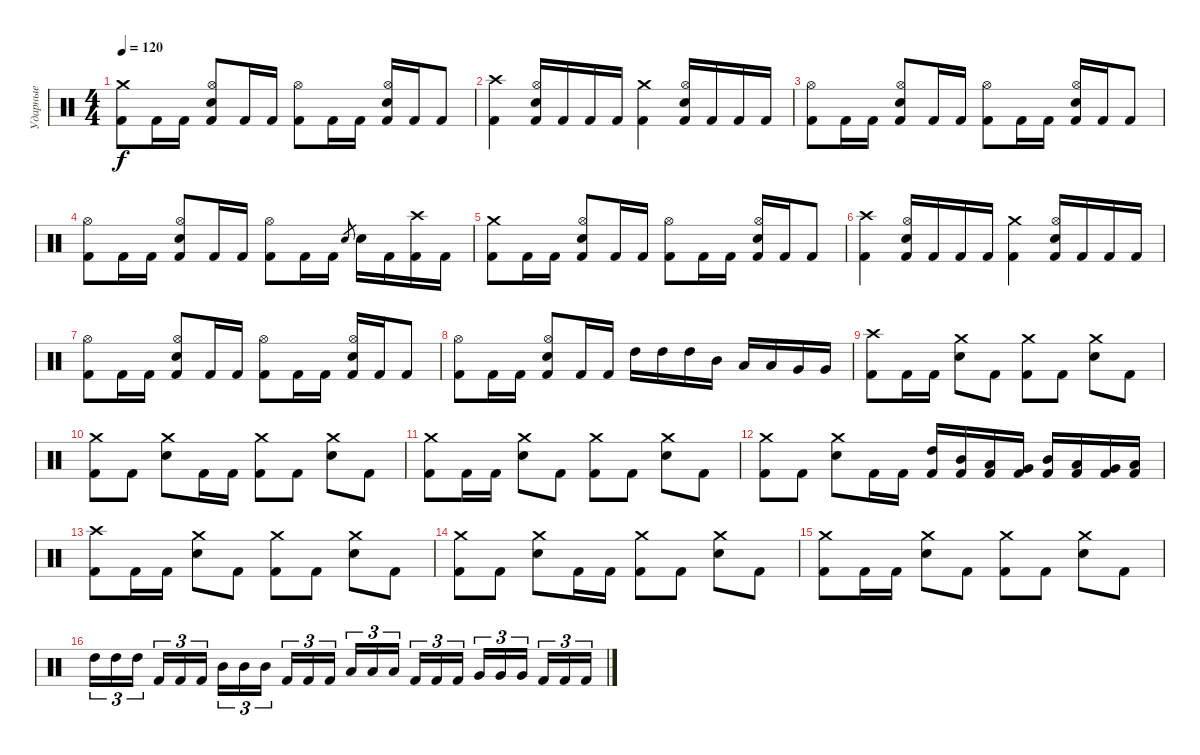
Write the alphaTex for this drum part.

\track ("Ударные" "Ударные") {instrument percussion}
\staff {score}
\articulation defaults
\ts (4 4)
\tempo 120
\clef neutral
\ks c
("Crash medium (hit)" "Kick (hit) 2").8{dy f} "Kick (hit) 2".16 "Kick (hit) 2".16 ("Hi-Hat (open)" "Electric Snare (hit)" "Kick (hit) 2").8 "Kick (hit) 2".16 "Kick (hit) 2".16 ("Hi-Hat (open)" "Kick (hit) 2").8 "Kick (hit) 2".16 "Kick (hit) 2".16 ("Hi-Hat (open)" "Electric Snare (hit)" "Kick (hit) 2").16 "Kick (hit) 2".16 "Kick (hit) 2".8 |
("Crash high (hit)" "Kick (hit) 2").4 ("Hi-Hat (open)" "Electric Snare (hit)" "Kick (hit) 2").16 "Kick (hit) 2".16 "Kick (hit) 2".16 "Kick (hit) 2".16 ("Crash medium (hit)" "Kick (hit) 2").4 ("Hi-Hat (open)" "Electric Snare (hit)" "Kick (hit) 2").16 "Kick (hit) 2".16 "Kick (hit) 2".16 "Kick (hit) 2".16 |
("Hi-Hat (open)" "Kick (hit) 2").8 "Kick (hit) 2".16 "Kick (hit) 2".16 ("Hi-Hat (open)" "Electric Snare (hit)" "Kick (hit) 2").8 "Kick (hit) 2".16 "Kick (hit) 2".16 ("Hi-Hat (open)" "Kick (hit) 2").8 "Kick (hit) 2".16 "Kick (hit) 2".16 ("Hi-Hat (open)" "Electric Snare (hit)" "Kick (hit) 2").16 "Kick (hit) 2".16 "Kick (hit) 2".8 |
("Hi-Hat (open)" "Kick (hit) 2").8 "Kick (hit) 2".16 "Kick (hit) 2".16 ("Hi-Hat (open)" "Electric Snare (hit)" "Kick (hit) 2").8 "Kick (hit) 2".16 "Kick (hit) 2".16 ("Hi-Hat (open)" "Kick (hit) 2").8 "Kick (hit) 2".16 "Kick (hit) 2".16 "Electric Snare (hit)".8{gr} "Electric Snare (hit)".16 "Kick (hit) 2".16 ("Crash high (hit)" "Kick (hit) 2").16 "Kick (hit) 2".16 |
("Crash medium (hit)" "Kick (hit) 2").8 "Kick (hit) 2".16 "Kick (hit) 2".16 ("Hi-Hat (open)" "Electric Snare (hit)" "Kick (hit) 2").8 "Kick (hit) 2".16 "Kick (hit) 2".16 ("Hi-Hat (open)" "Kick (hit) 2").8 "Kick (hit) 2".16 "Kick (hit) 2".16 ("Hi-Hat (open)" "Electric Snare (hit)" "Kick (hit) 2").16 "Kick (hit) 2".16 "Kick (hit) 2".8 |
("Crash high (hit)" "Kick (hit) 2").4 ("Hi-Hat (open)" "Electric Snare (hit)" "Kick (hit) 2").16 "Kick (hit) 2".16 "Kick (hit) 2".16 "Kick (hit) 2".16 ("Crash medium (hit)" "Kick (hit) 2").4 ("Hi-Hat (open)" "Electric Snare (hit)" "Kick (hit) 2").16 "Kick (hit) 2".16 "Kick (hit) 2".16 "Kick (hit) 2".16 |
("Hi-Hat (open)" "Kick (hit) 2").8 "Kick (hit) 2".16 "Kick (hit) 2".16 ("Hi-Hat (open)" "Electric Snare (hit)" "Kick (hit) 2").8 "Kick (hit) 2".16 "Kick (hit) 2".16 ("Hi-Hat (open)" "Kick (hit) 2").8 "Kick (hit) 2".16 "Kick (hit) 2".16 ("Hi-Hat (open)" "Electric Snare (hit)" "Kick (hit) 2").16 "Kick (hit) 2".16 "Kick (hit) 2".8 |
("Hi-Hat (open)" "Kick (hit) 2").8 "Kick (hit) 2".16 "Kick (hit) 2".16 ("Hi-Hat (open)" "Electric Snare (hit)" "Kick (hit) 2").8 "Kick (hit) 2".16 "Kick (hit) 2".16 "High Tom (hit)".16 "High Tom (hit)".16 "High Tom (hit)".16 "Mid Tom (hit)".16 "Low Tom (hit)".16 "Low Tom (hit)".16 "Very Low Tom (hit)".16 "Very Low Tom (hit)".16 |
("Crash high (hit)" "Kick (hit) 2").8 "Kick (hit) 2".16 "Kick (hit) 2".16 ("Crash medium (hit)" "Electric Snare (hit)").8 "Kick (hit) 2".8 ("Crash medium (hit)" "Kick (hit) 2").8 "Kick (hit) 2".8 ("Crash medium (hit)" "Electric Snare (hit)").8 "Kick (hit) 2".8 |
("Crash medium (hit)" "Kick (hit) 2").8 "Kick (hit) 2".8 ("Crash medium (hit)" "Electric Snare (hit)").8 "Kick (hit) 2".16 "Kick (hit) 2".16 ("Crash medium (hit)" "Kick (hit) 2").8 "Kick (hit) 2".8 ("Crash medium (hit)" "Electric Snare (hit)").8 "Kick (hit) 2".8 |
("Crash medium (hit)" "Kick (hit) 2").8 "Kick (hit) 2".16 "Kick (hit) 2".16 ("Crash medium (hit)" "Electric Snare (hit)").8 "Kick (hit) 2".8 ("Crash medium (hit)" "Kick (hit) 2").8 "Kick (hit) 2".8 ("Crash medium (hit)" "Electric Snare (hit)").8 "Kick (hit) 2".8 |
("Crash medium (hit)" "Kick (hit) 2").8 "Kick (hit) 2".8 ("Crash medium (hit)" "Electric Snare (hit)").8 "Kick (hit) 2".16 "Kick (hit) 2".16 ("High Tom (hit)" "Kick (hit) 2").16 ("Mid Tom (hit)" "Kick (hit) 2").16 ("Low Tom (hit)" "Kick (hit) 2").16 ("Very Low Tom (hit)" "Kick (hit) 2").16 ("Mid Tom (hit)" "Kick (hit) 2").16 ("Low Tom (hit)" "Kick (hit) 2").16 ("Very Low Tom (hit)" "Kick (hit) 2").16 ("Low Floor Tom (hit)" "Kick (hit) 2").16 |
("Crash high (hit)" "Kick (hit) 2").8 "Kick (hit) 2".16 "Kick (hit) 2".16 ("Crash medium (hit)" "Electric Snare (hit)").8 "Kick (hit) 2".8 ("Crash medium (hit)" "Kick (hit) 2").8 "Kick (hit) 2".8 ("Crash medium (hit)" "Electric Snare (hit)").8 "Kick (hit) 2".8 |
("Crash medium (hit)" "Kick (hit) 2").8 "Kick (hit) 2".8 ("Crash medium (hit)" "Electric Snare (hit)").8 "Kick (hit) 2".16 "Kick (hit) 2".16 ("Crash medium (hit)" "Kick (hit) 2").8 "Kick (hit) 2".8 ("Crash medium (hit)" "Electric Snare (hit)").8 "Kick (hit) 2".8 |
("Crash medium (hit)" "Kick (hit) 2").8 "Kick (hit) 2".16 "Kick (hit) 2".16 ("Crash medium (hit)" "Electric Snare (hit)").8 "Kick (hit) 2".8 ("Crash medium (hit)" "Kick (hit) 2").8 "Kick (hit) 2".8 ("Crash medium (hit)" "Electric Snare (hit)").8 "Kick (hit) 2".8 |
"High Tom (hit)".16{tu (3 2)} "High Tom (hit)".16{tu (3 2)} "High Tom (hit)".16{tu (3 2) beam splitsecondary} "Kick (hit) 2".16{tu (3 2)} "Kick (hit) 2".16{tu (3 2)} "Kick (hit) 2".16{tu (3 2)} "Mid Tom (hit)".16{tu (3 2)} "Mid Tom (hit)".16{tu (3 2)} "Mid Tom (hit)".16{tu (3 2) beam splitsecondary} "Kick (hit) 2".16{tu (3 2)} "Kick (hit) 2".16{tu (3 2)} "Kick (hit) 2".16{tu (3 2)} "Low Tom (hit)".16{tu (3 2)} "Low Tom (hit)".16{tu (3 2)} "Low Tom (hit)".16{tu (3 2) beam splitsecondary} "Kick (hit) 2".16{tu (3 2)} "Kick (hit) 2".16{tu (3 2)} "Kick (hit) 2".16{tu (3 2)} "Very Low Tom (hit)".16{tu (3 2)} "Very Low Tom (hit)".16{tu (3 2)} "Very Low Tom (hit)".16{tu (3 2) beam splitsecondary} "Kick (hit) 2".16{tu (3 2)} "Kick (hit) 2".16{tu (3 2)} "Kick (hit) 2".16{tu (3 2)}
